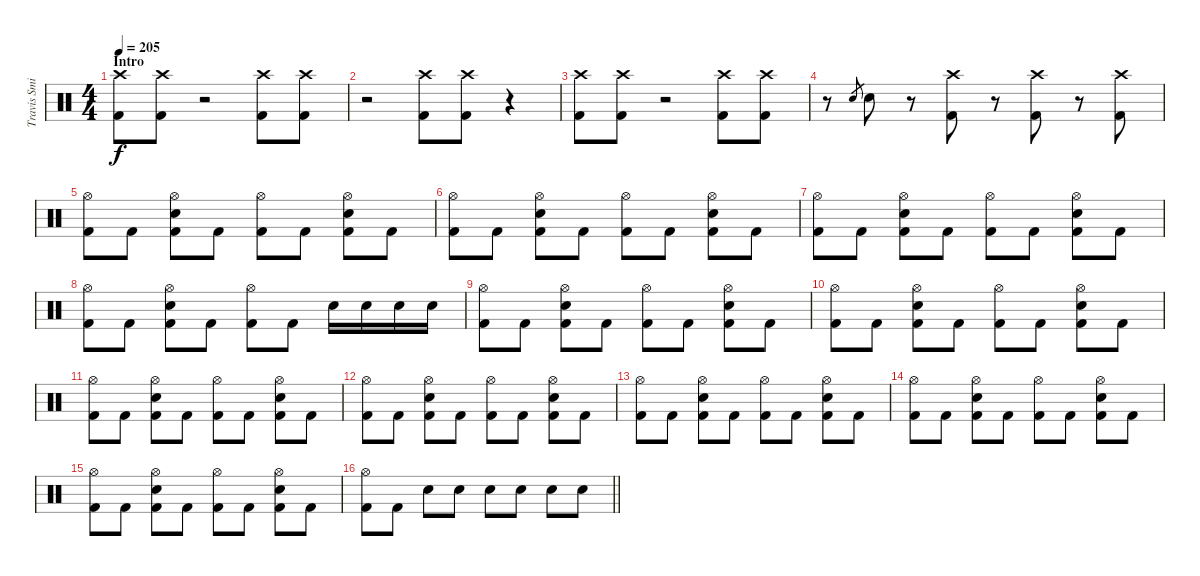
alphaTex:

\track ("Travis Smith" "Travis Smi") {instrument percussion}
\staff {score}
\articulation defaults
\ts (4 4)
\section ("" "Intro")
\tempo 205
\clef neutral
\ks c
("Crash high (hit)" "Kick (hit) 2").8{dy f} ("Crash high (hit)" "Kick (hit) 2").8 r.2 ("Crash high (hit)" "Kick (hit) 2").8 ("Crash high (hit)" "Kick (hit) 2").8 |
r.2 ("Crash high (hit)" "Kick (hit) 2").8 ("Crash high (hit)" "Kick (hit) 2").8 r.4 |
("Crash high (hit)" "Kick (hit) 2").8 ("Crash high (hit)" "Kick (hit) 2").8 r.2 ("Crash high (hit)" "Kick (hit) 2").8 ("Crash high (hit)" "Kick (hit) 2").8 |
r.8 "Snare (hit) 2".8{gr} "Snare (hit) 2".8 r.8 ("Crash high (hit)" "Kick (hit) 2").8 r.8 ("Crash high (hit)" "Kick (hit) 2").8 r.8 ("Crash high (hit)" "Kick (hit) 2").8 |
("Hi-Hat (open)" "Kick (hit) 2").8 "Kick (hit) 2".8 ("Hi-Hat (open)" "Snare (hit) 2" "Kick (hit) 2").8 "Kick (hit) 2".8 ("Hi-Hat (open)" "Kick (hit) 2").8 "Kick (hit) 2".8 ("Hi-Hat (open)" "Snare (hit) 2" "Kick (hit) 2").8 "Kick (hit) 2".8 |
("Hi-Hat (open)" "Kick (hit) 2").8 "Kick (hit) 2".8 ("Hi-Hat (open)" "Snare (hit) 2" "Kick (hit) 2").8 "Kick (hit) 2".8 ("Hi-Hat (open)" "Kick (hit) 2").8 "Kick (hit) 2".8 ("Hi-Hat (open)" "Snare (hit) 2" "Kick (hit) 2").8 "Kick (hit) 2".8 |
("Hi-Hat (open)" "Kick (hit) 2").8 "Kick (hit) 2".8 ("Hi-Hat (open)" "Snare (hit) 2" "Kick (hit) 2").8 "Kick (hit) 2".8 ("Hi-Hat (open)" "Kick (hit) 2").8 "Kick (hit) 2".8 ("Hi-Hat (open)" "Snare (hit) 2" "Kick (hit) 2").8 "Kick (hit) 2".8 |
("Hi-Hat (open)" "Kick (hit) 2").8 "Kick (hit) 2".8 ("Hi-Hat (open)" "Snare (hit) 2" "Kick (hit) 2").8 "Kick (hit) 2".8 ("Hi-Hat (open)" "Kick (hit) 2").8 "Kick (hit) 2".8 "Snare (hit) 2".16 "Snare (hit) 2".16 "Snare (hit) 2".16 "Snare (hit) 2".16 |
("Hi-Hat (open)" "Kick (hit) 2").8 "Kick (hit) 2".8 ("Hi-Hat (open)" "Snare (hit) 2" "Kick (hit) 2").8 "Kick (hit) 2".8 ("Hi-Hat (open)" "Kick (hit) 2").8 "Kick (hit) 2".8 ("Hi-Hat (open)" "Snare (hit) 2" "Kick (hit) 2").8 "Kick (hit) 2".8 |
("Hi-Hat (open)" "Kick (hit) 2").8 "Kick (hit) 2".8 ("Hi-Hat (open)" "Snare (hit) 2" "Kick (hit) 2").8 "Kick (hit) 2".8 ("Hi-Hat (open)" "Kick (hit) 2").8 "Kick (hit) 2".8 ("Hi-Hat (open)" "Snare (hit) 2" "Kick (hit) 2").8 "Kick (hit) 2".8 |
("Hi-Hat (open)" "Kick (hit) 2").8 "Kick (hit) 2".8 ("Hi-Hat (open)" "Snare (hit) 2" "Kick (hit) 2").8 "Kick (hit) 2".8 ("Hi-Hat (open)" "Kick (hit) 2").8 "Kick (hit) 2".8 ("Hi-Hat (open)" "Snare (hit) 2" "Kick (hit) 2").8 "Kick (hit) 2".8 |
("Hi-Hat (open)" "Kick (hit) 2").8 "Kick (hit) 2".8 ("Hi-Hat (open)" "Snare (hit) 2" "Kick (hit) 2").8 "Kick (hit) 2".8 ("Hi-Hat (open)" "Kick (hit) 2").8 "Kick (hit) 2".8 ("Hi-Hat (open)" "Snare (hit) 2" "Kick (hit) 2").8 "Kick (hit) 2".8 |
("Hi-Hat (open)" "Kick (hit) 2").8 "Kick (hit) 2".8 ("Hi-Hat (open)" "Snare (hit) 2" "Kick (hit) 2").8 "Kick (hit) 2".8 ("Hi-Hat (open)" "Kick (hit) 2").8 "Kick (hit) 2".8 ("Hi-Hat (open)" "Snare (hit) 2" "Kick (hit) 2").8 "Kick (hit) 2".8 |
("Hi-Hat (open)" "Kick (hit) 2").8 "Kick (hit) 2".8 ("Hi-Hat (open)" "Snare (hit) 2" "Kick (hit) 2").8 "Kick (hit) 2".8 ("Hi-Hat (open)" "Kick (hit) 2").8 "Kick (hit) 2".8 ("Hi-Hat (open)" "Snare (hit) 2" "Kick (hit) 2").8 "Kick (hit) 2".8 |
("Hi-Hat (open)" "Kick (hit) 2").8 "Kick (hit) 2".8 ("Hi-Hat (open)" "Snare (hit) 2" "Kick (hit) 2").8 "Kick (hit) 2".8 ("Hi-Hat (open)" "Kick (hit) 2").8 "Kick (hit) 2".8 ("Hi-Hat (open)" "Snare (hit) 2" "Kick (hit) 2").8 "Kick (hit) 2".8 |
\barLineRight lightlight
("Hi-Hat (open)" "Kick (hit) 2").8 "Kick (hit) 2".8 "Snare (hit) 2".8 "Snare (hit) 2".8 "Snare (hit) 2".8 "Snare (hit) 2".8 "Snare (hit) 2".8 "Snare (hit) 2".8
